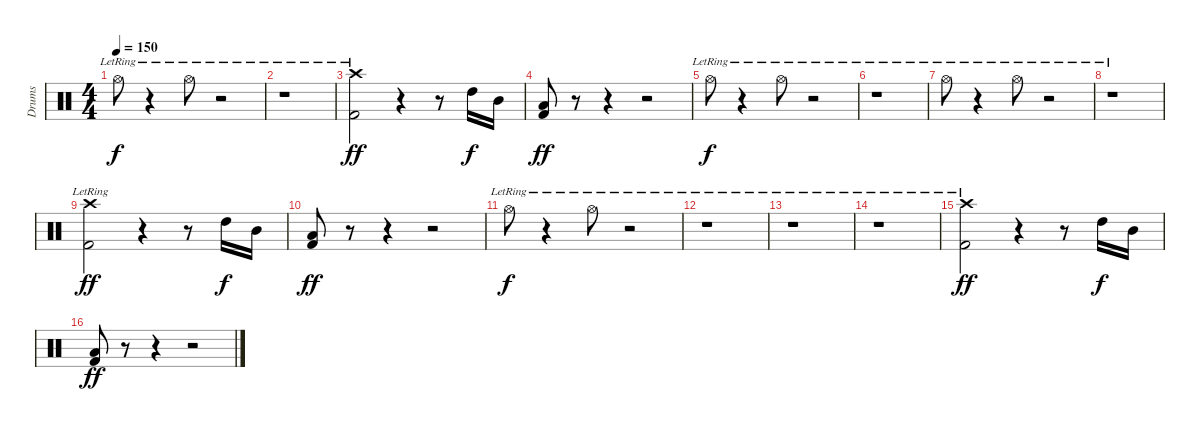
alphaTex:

\track ("Drums" "Drums") {instrument percussion}
\staff {score}
\articulation defaults
\ts (4 4)
\tempo 150
\clef neutral
\ks c "Hi-Hat (open)"{lr}.8{dy f}
r.4 "Hi-Hat (open)"{lr}.8 r.2 |
r.1 |
("Crash high (hit)"{lr} "Kick (hit) 2").2{dy ff} r.4 r.8 "High Tom (hit)".16{dy f} "Mid Tom (hit)".16 |
("Low Tom (hit)" "Kick (hit) 2").8{dy ff} r.8 r.4 r.2 |
"Hi-Hat (open)"{lr}.8{dy f} r.4 "Hi-Hat (open)"{lr}.8 r.2 |
r.1 |
"Hi-Hat (open)"{lr}.8 r.4 "Hi-Hat (open)"{lr}.8 r.2 |
r.1 |
("Crash high (hit)"{lr} "Kick (hit) 2").2{dy ff} r.4 r.8 "High Tom (hit)".16{dy f} "Mid Tom (hit)".16 |
("Low Tom (hit)" "Kick (hit) 2").8{dy ff} r.8 r.4 r.2 |
"Hi-Hat (open)"{lr}.8{dy f} r.4 "Hi-Hat (open)"{lr}.8 r.2 |
r.1 |
r.1 |
r.1 |
("Crash high (hit)"{lr} "Kick (hit) 2").2{dy ff} r.4 r.8 "High Tom (hit)".16{dy f} "Mid Tom (hit)".16 |
("Low Tom (hit)" "Kick (hit) 2").8{dy ff} r.8 r.4 r.2
